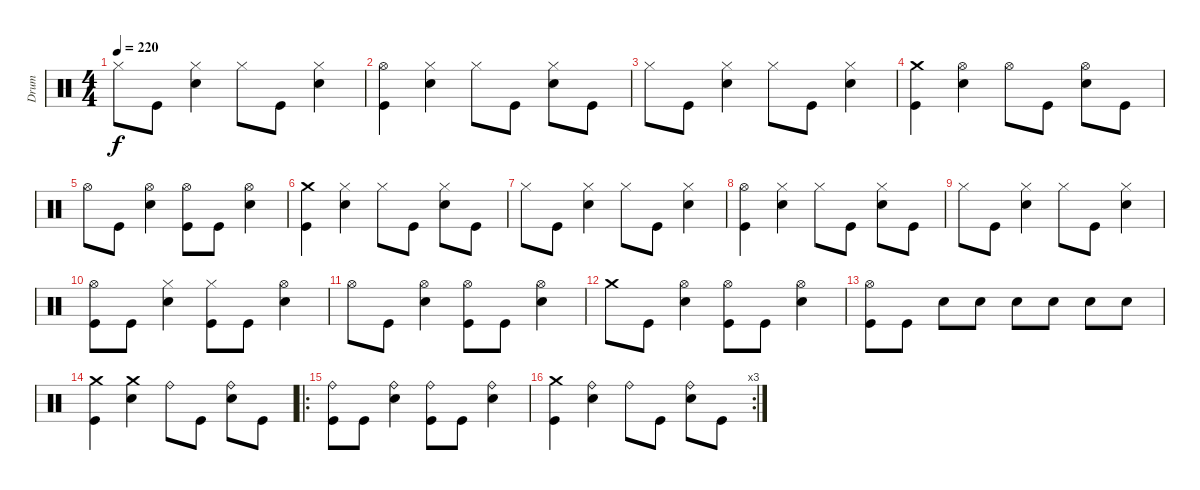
\track ("Drum" "Drum") {instrument percussion}
\staff {score}
\articulation defaults
\ts (4 4)
\tempo 220
\clef neutral
\ks c "Hi-Hat (closed)".8{dy f} "Kick (hit)".8
("Hi-Hat (closed)" "Snare (hit) 2").4 "Hi-Hat (closed)".8 "Kick (hit)".8 ("Hi-Hat (closed)" "Snare (hit) 2").4 |
("Hi-Hat (open)" "Kick (hit)").4 ("Hi-Hat (closed)" "Snare (hit) 2").4 "Hi-Hat (closed)".8 "Kick (hit)".8 ("Hi-Hat (closed)" "Snare (hit) 2").8 "Kick (hit)".8 |
"Hi-Hat (closed)".8 "Kick (hit)".8 ("Hi-Hat (closed)" "Snare (hit) 2").4 "Hi-Hat (closed)".8 "Kick (hit)".8 ("Hi-Hat (closed)" "Snare (hit) 2").4 |
("Crash medium (hit)" "Kick (hit)").4 ("Hi-Hat (open)" "Snare (hit) 2").4 "Hi-Hat (open)".8 "Kick (hit)".8 ("Hi-Hat (open)" "Snare (hit) 2").8 "Kick (hit)".8 |
"Hi-Hat (open)".8 "Kick (hit)".8 ("Hi-Hat (open)" "Snare (hit) 2").4 ("Hi-Hat (open)" "Kick (hit)").8 "Kick (hit)".8 ("Hi-Hat (open)" "Snare (hit) 2").4 |
("Crash medium (hit)" "Kick (hit)").4 ("Hi-Hat (closed)" "Snare (hit) 2").4 "Hi-Hat (closed)".8 "Kick (hit)".8 ("Hi-Hat (closed)" "Snare (hit) 2").8 "Kick (hit)".8 |
"Hi-Hat (closed)".8 "Kick (hit)".8 ("Hi-Hat (closed)" "Snare (hit) 2").4 "Hi-Hat (closed)".8 "Kick (hit)".8 ("Hi-Hat (closed)" "Snare (hit) 2").4 |
("Hi-Hat (open)" "Kick (hit)").4 ("Hi-Hat (closed)" "Snare (hit) 2").4 "Hi-Hat (closed)".8 "Kick (hit)".8 ("Hi-Hat (closed)" "Snare (hit) 2").8 "Kick (hit)".8 |
"Hi-Hat (closed)".8 "Kick (hit)".8 ("Hi-Hat (closed)" "Snare (hit) 2").4 "Hi-Hat (closed)".8 "Kick (hit)".8 ("Hi-Hat (closed)" "Snare (hit) 2").4 |
("Hi-Hat (open)" "Kick (hit)").8 "Kick (hit)".8 ("Hi-Hat (closed)" "Snare (hit) 2").4 ("Hi-Hat (closed)" "Kick (hit)").8 "Kick (hit)".8 ("Hi-Hat (open)" "Snare (hit) 2").4 |
"Hi-Hat (open)".8 "Kick (hit)".8 ("Hi-Hat (open)" "Snare (hit) 2").4 ("Hi-Hat (open)" "Kick (hit)").8 "Kick (hit)".8 ("Hi-Hat (open)" "Snare (hit) 2").4 |
"Crash medium (hit)".8 "Kick (hit)".8 ("Hi-Hat (open)" "Snare (hit) 2").4 ("Hi-Hat (open)" "Kick (hit)").8 "Kick (hit)".8 ("Hi-Hat (open)" "Snare (hit) 2").4 |
("Hi-Hat (open)" "Kick (hit)").8 "Kick (hit)".8 "Snare (hit) 2".8 "Snare (hit) 2".8 "Snare (hit) 2".8 "Snare (hit) 2".8 "Snare (hit) 2".8 "Snare (hit) 2".8 |
("Crash medium (hit)" "Kick (hit)").4 ("Crash medium (hit)" "Snare (hit) 2").4 "Ride (bell)".8 "Kick (hit)".8 ("Ride (bell)" "Snare (hit) 2").8 "Kick (hit)".8 |
\ro
("Ride (bell)" "Kick (hit)").8 "Kick (hit)".8 ("Ride (bell)" "Snare (hit) 2").4 ("Ride (bell)" "Kick (hit)").8 "Kick (hit)".8 ("Ride (bell)" "Snare (hit) 2").4 |
\rc 3
("Crash medium (hit)" "Kick (hit)").4 ("Ride (bell)" "Snare (hit) 2").4 "Ride (bell)".8 "Kick (hit)".8 ("Ride (bell)" "Snare (hit) 2").8 "Kick (hit)".8
